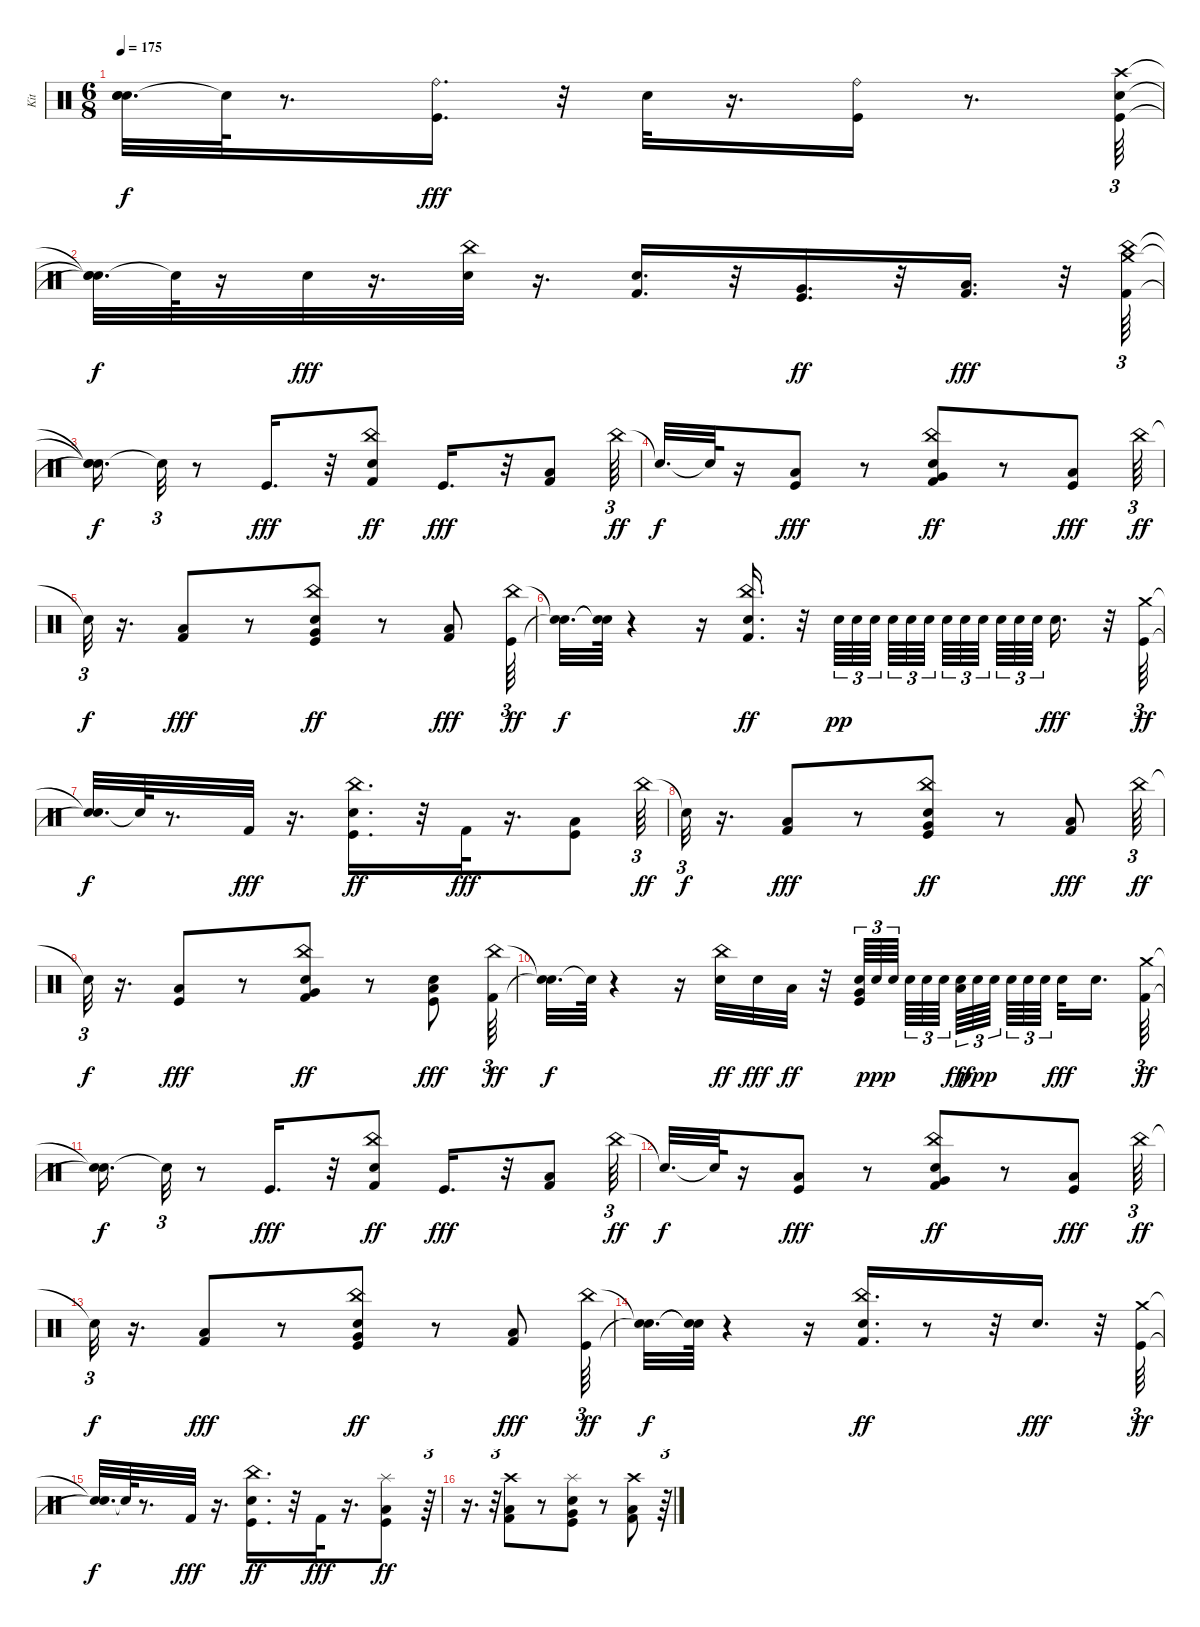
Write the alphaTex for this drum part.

\track ("Kit" "Kit") {instrument percussion}
\staff {score}
\articulation defaults
\ts (6 8)
\tempo 175
\clef neutral
\ks c
("Snare (hit)"{t} "Snare (hit)"{t} "Snare (hit)"{t}).32{d dy f} "Snare (hit)"{t}.64 r.8{d} ("Kick (hit)" "Ride (bell)").16{d dy fff} r.32 "Snare (hit) 2".32 r.16{d} ("Kick (hit)" "Ride (bell)").16 r.8{d} ("Kick (hit)" "Snare (hit) 2" "Crash high (hit)").64{tu (3 2)} |
("Snare (hit)"{t} "Snare (hit)"{t} "Snare (hit)"{t}).32{d dy f} "Snare (hit)"{t}.64 r.16 "Snare (hit) 2".32{dy fff} r.16{d} ("Snare (hit) 2" "China (hit)").32 r.16{d} ("Kick (hit) 2" "Snare (hit) 2").16{d} r.32 ("Kick (hit)" "Very Low Tom (hit)").16{d dy ff} r.32 ("Kick (hit) 2" "Low Floor Tom (hit)").16{d dy fff} r.32 ("Kick (hit) 2" "China (hit)" "Crash medium (hit)").64{tu (3 2)} |
("Snare (hit)"{t} "Snare (hit)"{t} "Snare (hit)"{t}).16{d dy f} "Snare (hit)"{t}.32{tu (3 2)} r.8 "Kick (hit)".16{d dy fff} r.32 ("Kick (hit) 2" "Snare (hit) 2" "China (hit)").8{dy ff} "Kick (hit)".16{d dy fff} r.32 ("Kick (hit) 2" "Low Floor Tom (hit)").8 "China (hit)".64{tu (3 2) dy ff} |
"Snare (hit)"{t}.32{d dy f} "Snare (hit)"{t}.64 r.16 ("Kick (hit)" "Low Floor Tom (hit)").8{dy fff} r.8 ("Kick (hit) 2" "Snare (hit) 2" "Very Low Tom (hit)" "China (hit)").8{dy ff} r.8 ("Kick (hit)" "Low Floor Tom (hit)").8{dy fff} "China (hit)".64{tu (3 2) dy ff} |
"Snare (hit)"{t}.32{tu (3 2) dy f} r.16{d} ("Kick (hit) 2" "Low Floor Tom (hit)").8{dy fff} r.8 ("Kick (hit)" "Snare (hit) 2" "Very Low Tom (hit)" "China (hit)").8{dy ff} r.8 ("Kick (hit) 2" "Low Floor Tom (hit)").8{dy fff} ("Kick (hit)" "China (hit)").64{tu (3 2) dy ff} |
("Snare (hit)"{t} "Snare (hit)"{t}).32{d dy f} ("Snare (hit)"{t} "Snare (hit)"{t}).64 r.4 r.16 ("Kick (hit) 2" "Snare (hit) 2" "China (hit)").16{d dy ff} r.32 "Snare (hit) 2".64{tu (3 2) dy pp} "Snare (hit) 2".64{tu (3 2)} "Snare (hit) 2".64{tu (3 2) beam splitsecondary} "Snare (hit) 2".64{tu (3 2)} "Snare (hit) 2".64{tu (3 2)} "Snare (hit) 2".64{tu (3 2) beam splitsecondary} "Snare (hit) 2".64{tu (3 2)} "Snare (hit) 2".64{tu (3 2)} "Snare (hit) 2".64{tu (3 2) beam splitsecondary} "Snare (hit) 2".64{tu (3 2)} "Snare (hit) 2".64{tu (3 2)} "Snare (hit) 2".64{tu (3 2) beam splitsecondary} "Snare (hit) 2".16{d dy fff} r.32 ("Kick (hit)" "Crash medium (hit)").64{tu (3 2) dy ff} |
("Snare (hit)"{t} "Snare (hit)"{t}).32{d dy f} "Snare (hit)"{t}.64 r.8{d} "Kick (hit) 2".32{dy fff} r.16{d} ("Kick (hit)" "Snare (hit) 2" "China (hit)").16{d dy ff} r.32 "Kick (hit) 2".32{dy fff} r.16{d} ("Kick (hit)" "Low Floor Tom (hit)").8 "China (hit)".64{tu (3 2) dy ff} |
"Snare (hit)"{t}.32{tu (3 2) dy f} r.16{d} ("Kick (hit) 2" "Low Floor Tom (hit)").8{dy fff} r.8 ("Kick (hit)" "Snare (hit) 2" "Very Low Tom (hit)" "China (hit)").8{dy ff} r.8 ("Kick (hit) 2" "Low Floor Tom (hit)").8{dy fff} "China (hit)".64{tu (3 2) dy ff} |
"Snare (hit)"{t}.32{tu (3 2) dy f} r.16{d} ("Kick (hit)" "Low Floor Tom (hit)").8{dy fff} r.8 ("Kick (hit) 2" "Snare (hit) 2" "Very Low Tom (hit)" "China (hit)").8{dy ff} r.8 ("Kick (hit)" "Snare (hit) 2" "Low Floor Tom (hit)").8{dy fff} ("Kick (hit) 2" "China (hit)").64{tu (3 2) dy ff} |
("Snare (hit)"{t} "Snare (hit)"{t}).32{d dy f} "Snare (hit)"{t}.64 r.4 r.16 ("Snare (hit) 2" "China (hit)").32{dy ff} "Snare (hit) 2".32{dy fff} "Low Tom (hit)".32{dy ff} r.32 ("Kick (hit)" "Snare (hit) 2" "Very Low Tom (hit)").64{tu (3 2)} "Snare (hit) 2".64{tu (3 2) dy ppp} "Snare (hit) 2".64{tu (3 2) beam splitsecondary} "Snare (hit) 2".64{tu (3 2)} "Snare (hit) 2".64{tu (3 2)} "Snare (hit) 2".64{tu (3 2) beam splitsecondary} ("Snare (hit) 2" "Low Floor Tom (hit)").64{tu (3 2) dy fff} "Snare (hit) 2".64{tu (3 2) dy ppp} "Snare (hit) 2".64{tu (3 2) beam splitsecondary} "Snare (hit) 2".64{tu (3 2)} "Snare (hit) 2".64{tu (3 2)} "Snare (hit) 2".64{tu (3 2) beam splitsecondary} "Snare (hit) 2".32{dy fff} "Snare (hit) 2".16{d} ("Kick (hit) 2" "Crash medium (hit)").64{tu (3 2) dy ff} |
("Snare (hit)"{t} "Snare (hit)"{t}).16{d dy f} "Snare (hit)"{t}.32{tu (3 2)} r.8 "Kick (hit)".16{d dy fff} r.32 ("Kick (hit) 2" "Snare (hit) 2" "China (hit)").8{dy ff} "Kick (hit)".16{d dy fff} r.32 ("Kick (hit) 2" "Low Floor Tom (hit)").8 "China (hit)".64{tu (3 2) dy ff} |
"Snare (hit)"{t}.32{d dy f} "Snare (hit)"{t}.64 r.16 ("Kick (hit)" "Low Floor Tom (hit)").8{dy fff} r.8 ("Kick (hit) 2" "Snare (hit) 2" "Very Low Tom (hit)" "China (hit)").8{dy ff} r.8 ("Kick (hit)" "Low Floor Tom (hit)").8{dy fff} "China (hit)".64{tu (3 2) dy ff} |
"Snare (hit)"{t}.32{tu (3 2) dy f} r.16{d} ("Kick (hit) 2" "Low Floor Tom (hit)").8{dy fff} r.8 ("Kick (hit)" "Snare (hit) 2" "Very Low Tom (hit)" "China (hit)").8{dy ff} r.8 ("Kick (hit) 2" "Low Floor Tom (hit)").8{dy fff} ("Kick (hit)" "China (hit)").64{tu (3 2) dy ff} |
("Snare (hit)"{t} "Snare (hit)"{t}).32{d dy f} ("Snare (hit)"{t} "Snare (hit)"{t}).64 r.4 r.16 ("Kick (hit) 2" "Snare (hit) 2" "China (hit)").16{d dy ff} r.8 r.32 "Snare (hit) 2".16{d dy fff} r.32 ("Kick (hit)" "Crash medium (hit)").64{tu (3 2) dy ff} |
("Snare (hit)"{t} "Snare (hit)"{t}).32{d dy f} "Snare (hit)"{t}.64 r.8{d} "Kick (hit) 2".32{dy fff} r.16{d} ("Kick (hit)" "Snare (hit) 2" "China (hit)").16{d dy ff} r.32 "Kick (hit) 2".32{dy fff} r.16{d} ("Kick (hit)" "Low Floor Tom (hit)" "Splash (hit)").8{dy ff} r.64{tu (3 2)} |
r.16{d} r.32{tu (3 2)} ("Kick (hit) 2" "Low Floor Tom (hit)" "Crash high (hit)").8 r.8 ("Kick (hit)" "Snare (hit) 2" "Very Low Tom (hit)" "Splash (hit)").8 r.8 ("Kick (hit) 2" "Low Floor Tom (hit)" "Crash high (hit)").8 r.64{tu (3 2)}
